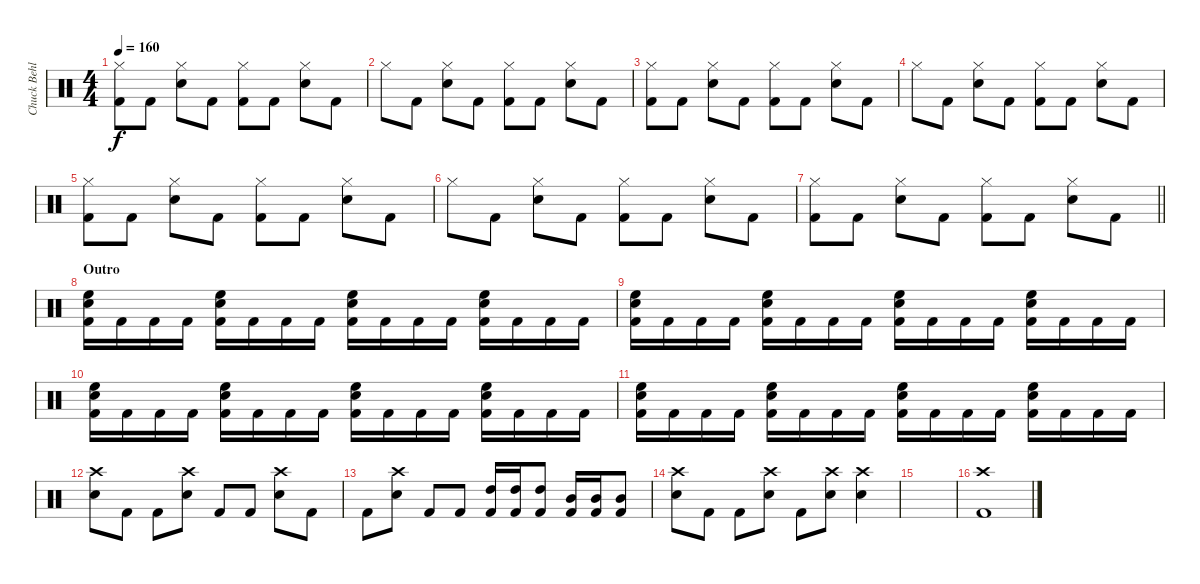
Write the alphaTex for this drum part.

\track ("Chuck Behler" "Chuck Behl") {instrument percussion}
\staff {score}
\articulation defaults
\ts (4 4)
\tempo 160
\clef neutral
\ks c
("Hi-Hat (closed)" "Kick (hit) 2").8{dy f} "Kick (hit) 2".8 ("Hi-Hat (closed)" "Snare (hit) 2").8 "Kick (hit) 2".8 ("Hi-Hat (closed)" "Kick (hit) 2").8 "Kick (hit) 2".8 ("Hi-Hat (closed)" "Snare (hit) 2").8 "Kick (hit) 2".8 |
"Hi-Hat (closed)".8 "Kick (hit) 2".8 ("Hi-Hat (closed)" "Snare (hit) 2").8 "Kick (hit) 2".8 ("Hi-Hat (closed)" "Kick (hit) 2").8 "Kick (hit) 2".8 ("Hi-Hat (closed)" "Snare (hit) 2").8 "Kick (hit) 2".8 |
("Hi-Hat (closed)" "Kick (hit) 2").8 "Kick (hit) 2".8 ("Hi-Hat (closed)" "Snare (hit) 2").8 "Kick (hit) 2".8 ("Hi-Hat (closed)" "Kick (hit) 2").8 "Kick (hit) 2".8 ("Hi-Hat (closed)" "Snare (hit) 2").8 "Kick (hit) 2".8 |
"Hi-Hat (closed)".8 "Kick (hit) 2".8 ("Hi-Hat (closed)" "Snare (hit) 2").8 "Kick (hit) 2".8 ("Hi-Hat (closed)" "Kick (hit) 2").8 "Kick (hit) 2".8 ("Hi-Hat (closed)" "Snare (hit) 2").8 "Kick (hit) 2".8 |
("Hi-Hat (closed)" "Kick (hit) 2").8 "Kick (hit) 2".8 ("Hi-Hat (closed)" "Snare (hit) 2").8 "Kick (hit) 2".8 ("Hi-Hat (closed)" "Kick (hit) 2").8 "Kick (hit) 2".8 ("Hi-Hat (closed)" "Snare (hit) 2").8 "Kick (hit) 2".8 |
"Hi-Hat (closed)".8 "Kick (hit) 2".8 ("Hi-Hat (closed)" "Snare (hit) 2").8 "Kick (hit) 2".8 ("Hi-Hat (closed)" "Kick (hit) 2").8 "Kick (hit) 2".8 ("Hi-Hat (closed)" "Snare (hit) 2").8 "Kick (hit) 2".8 |
\barLineRight lightlight
("Hi-Hat (closed)" "Kick (hit) 2").8 "Kick (hit) 2".8 ("Hi-Hat (closed)" "Snare (hit) 2").8 "Kick (hit) 2".8 ("Hi-Hat (closed)" "Kick (hit) 2").8 "Kick (hit) 2".8 ("Hi-Hat (closed)" "Snare (hit) 2").8 "Kick (hit) 2".8 |
\section ("" "Outro")
("High Floor Tom (hit)" "Snare (hit) 2" "Kick (hit) 2").16 "Kick (hit) 2".16 "Kick (hit) 2".16 "Kick (hit) 2".16 ("High Floor Tom (hit)" "Snare (hit) 2" "Kick (hit) 2").16 "Kick (hit) 2".16 "Kick (hit) 2".16 "Kick (hit) 2".16 ("High Floor Tom (hit)" "Snare (hit) 2" "Kick (hit) 2").16 "Kick (hit) 2".16 "Kick (hit) 2".16 "Kick (hit) 2".16 ("High Floor Tom (hit)" "Snare (hit) 2" "Kick (hit) 2").16 "Kick (hit) 2".16 "Kick (hit) 2".16 "Kick (hit) 2".16 |
("High Floor Tom (hit)" "Snare (hit) 2" "Kick (hit) 2").16 "Kick (hit) 2".16 "Kick (hit) 2".16 "Kick (hit) 2".16 ("High Floor Tom (hit)" "Snare (hit) 2" "Kick (hit) 2").16 "Kick (hit) 2".16 "Kick (hit) 2".16 "Kick (hit) 2".16 ("High Floor Tom (hit)" "Snare (hit) 2" "Kick (hit) 2").16 "Kick (hit) 2".16 "Kick (hit) 2".16 "Kick (hit) 2".16 ("High Floor Tom (hit)" "Snare (hit) 2" "Kick (hit) 2").16 "Kick (hit) 2".16 "Kick (hit) 2".16 "Kick (hit) 2".16 |
("High Floor Tom (hit)" "Snare (hit) 2" "Kick (hit) 2").16 "Kick (hit) 2".16 "Kick (hit) 2".16 "Kick (hit) 2".16 ("High Floor Tom (hit)" "Snare (hit) 2" "Kick (hit) 2").16 "Kick (hit) 2".16 "Kick (hit) 2".16 "Kick (hit) 2".16 ("High Floor Tom (hit)" "Snare (hit) 2" "Kick (hit) 2").16 "Kick (hit) 2".16 "Kick (hit) 2".16 "Kick (hit) 2".16 ("High Floor Tom (hit)" "Snare (hit) 2" "Kick (hit) 2").16 "Kick (hit) 2".16 "Kick (hit) 2".16 "Kick (hit) 2".16 |
("High Floor Tom (hit)" "Snare (hit) 2" "Kick (hit) 2").16 "Kick (hit) 2".16 "Kick (hit) 2".16 "Kick (hit) 2".16 ("High Floor Tom (hit)" "Snare (hit) 2" "Kick (hit) 2").16 "Kick (hit) 2".16 "Kick (hit) 2".16 "Kick (hit) 2".16 ("High Floor Tom (hit)" "Snare (hit) 2" "Kick (hit) 2").16 "Kick (hit) 2".16 "Kick (hit) 2".16 "Kick (hit) 2".16 ("High Floor Tom (hit)" "Snare (hit) 2" "Kick (hit) 2").16 "Kick (hit) 2".16 "Kick (hit) 2".16 "Kick (hit) 2".16 |
("Crash high (hit)" "Snare (hit) 2").8 "Kick (hit) 2".8 "Kick (hit) 2".8 ("Crash high (hit)" "Snare (hit) 2").8 "Kick (hit) 2".8 "Kick (hit) 2".8 ("Crash high (hit)" "Snare (hit) 2").8 "Kick (hit) 2".8 |
"Kick (hit) 2".8 ("Crash high (hit)" "Snare (hit) 2").8 "Kick (hit) 2".8 "Kick (hit) 2".8 ("High Tom (hit)" "Kick (hit) 2").16 ("High Tom (hit)" "Kick (hit) 2").16 ("High Tom (hit)" "Kick (hit) 2").8 ("Mid Tom (hit)" "Kick (hit) 2").16 ("Mid Tom (hit)" "Kick (hit) 2").16 ("Mid Tom (hit)" "Kick (hit) 2").8 |
("Crash high (hit)" "Snare (hit) 2").8 "Kick (hit) 2".8 "Kick (hit) 2".8 ("Crash high (hit)" "Snare (hit) 2").8 "Kick (hit) 2".8 ("Crash high (hit)" "Snare (hit) 2").8 ("Crash high (hit)" "Snare (hit) 2").4 |
|
("Crash high (hit)" "Kick (hit) 2").1
